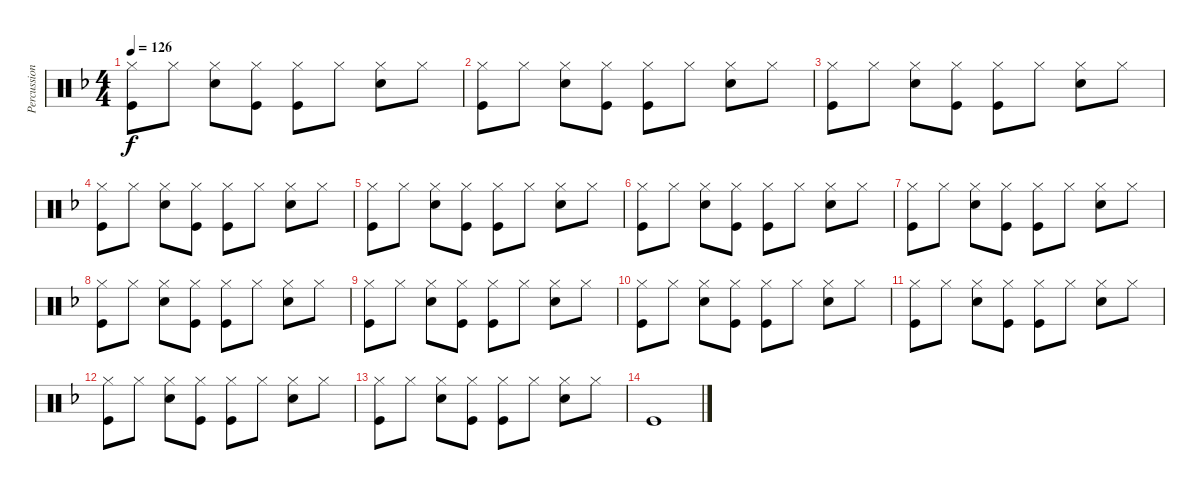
\track ("Percussion" "Percussion") {instrument percussion}
\staff {score}
\articulation defaults
\ts (4 4)
\tempo 126
\clef neutral
\ks dminor
("Kick (hit)" "Hi-Hat (closed)").8{dy f} "Hi-Hat (closed)".8 ("Hi-Hat (closed)" "Snare (hit) 2").8 ("Hi-Hat (closed)" "Kick (hit)").8 ("Hi-Hat (closed)" "Kick (hit)").8 "Hi-Hat (closed)".8 ("Hi-Hat (closed)" "Snare (hit) 2").8 "Hi-Hat (closed)".8 |
("Kick (hit)" "Hi-Hat (closed)").8 "Hi-Hat (closed)".8 ("Hi-Hat (closed)" "Snare (hit) 2").8 ("Hi-Hat (closed)" "Kick (hit)").8 ("Hi-Hat (closed)" "Kick (hit)").8 "Hi-Hat (closed)".8 ("Hi-Hat (closed)" "Snare (hit) 2").8 "Hi-Hat (closed)".8 |
("Kick (hit)" "Hi-Hat (closed)").8 "Hi-Hat (closed)".8 ("Hi-Hat (closed)" "Snare (hit) 2").8 ("Hi-Hat (closed)" "Kick (hit)").8 ("Hi-Hat (closed)" "Kick (hit)").8 "Hi-Hat (closed)".8 ("Hi-Hat (closed)" "Snare (hit) 2").8 "Hi-Hat (closed)".8 |
("Kick (hit)" "Hi-Hat (closed)").8 "Hi-Hat (closed)".8 ("Hi-Hat (closed)" "Snare (hit) 2").8 ("Hi-Hat (closed)" "Kick (hit)").8 ("Hi-Hat (closed)" "Kick (hit)").8 "Hi-Hat (closed)".8 ("Hi-Hat (closed)" "Snare (hit) 2").8 "Hi-Hat (closed)".8 |
("Kick (hit)" "Hi-Hat (closed)").8 "Hi-Hat (closed)".8 ("Hi-Hat (closed)" "Snare (hit) 2").8 ("Hi-Hat (closed)" "Kick (hit)").8 ("Hi-Hat (closed)" "Kick (hit)").8 "Hi-Hat (closed)".8 ("Hi-Hat (closed)" "Snare (hit) 2").8 "Hi-Hat (closed)".8 |
("Kick (hit)" "Hi-Hat (closed)").8 "Hi-Hat (closed)".8 ("Hi-Hat (closed)" "Snare (hit) 2").8 ("Hi-Hat (closed)" "Kick (hit)").8 ("Hi-Hat (closed)" "Kick (hit)").8 "Hi-Hat (closed)".8 ("Hi-Hat (closed)" "Snare (hit) 2").8 "Hi-Hat (closed)".8 |
("Kick (hit)" "Hi-Hat (closed)").8 "Hi-Hat (closed)".8 ("Hi-Hat (closed)" "Snare (hit) 2").8 ("Hi-Hat (closed)" "Kick (hit)").8 ("Hi-Hat (closed)" "Kick (hit)").8 "Hi-Hat (closed)".8 ("Hi-Hat (closed)" "Snare (hit) 2").8 "Hi-Hat (closed)".8 |
("Kick (hit)" "Hi-Hat (closed)").8 "Hi-Hat (closed)".8 ("Hi-Hat (closed)" "Snare (hit) 2").8 ("Hi-Hat (closed)" "Kick (hit)").8 ("Hi-Hat (closed)" "Kick (hit)").8 "Hi-Hat (closed)".8 ("Hi-Hat (closed)" "Snare (hit) 2").8 "Hi-Hat (closed)".8 |
("Kick (hit)" "Hi-Hat (closed)").8 "Hi-Hat (closed)".8 ("Hi-Hat (closed)" "Snare (hit) 2").8 ("Hi-Hat (closed)" "Kick (hit)").8 ("Hi-Hat (closed)" "Kick (hit)").8 "Hi-Hat (closed)".8 ("Hi-Hat (closed)" "Snare (hit) 2").8 "Hi-Hat (closed)".8 |
("Kick (hit)" "Hi-Hat (closed)").8 "Hi-Hat (closed)".8 ("Hi-Hat (closed)" "Snare (hit) 2").8 ("Hi-Hat (closed)" "Kick (hit)").8 ("Hi-Hat (closed)" "Kick (hit)").8 "Hi-Hat (closed)".8 ("Hi-Hat (closed)" "Snare (hit) 2").8 "Hi-Hat (closed)".8 |
("Kick (hit)" "Hi-Hat (closed)").8 "Hi-Hat (closed)".8 ("Hi-Hat (closed)" "Snare (hit) 2").8 ("Hi-Hat (closed)" "Kick (hit)").8 ("Hi-Hat (closed)" "Kick (hit)").8 "Hi-Hat (closed)".8 ("Hi-Hat (closed)" "Snare (hit) 2").8 "Hi-Hat (closed)".8 |
("Kick (hit)" "Hi-Hat (closed)").8 "Hi-Hat (closed)".8 ("Hi-Hat (closed)" "Snare (hit) 2").8 ("Hi-Hat (closed)" "Kick (hit)").8 ("Hi-Hat (closed)" "Kick (hit)").8 "Hi-Hat (closed)".8 ("Hi-Hat (closed)" "Snare (hit) 2").8 "Hi-Hat (closed)".8 |
("Kick (hit)" "Hi-Hat (closed)").8 "Hi-Hat (closed)".8 ("Hi-Hat (closed)" "Snare (hit) 2").8 ("Hi-Hat (closed)" "Kick (hit)").8 ("Hi-Hat (closed)" "Kick (hit)").8 "Hi-Hat (closed)".8 ("Hi-Hat (closed)" "Snare (hit) 2").8 "Hi-Hat (closed)".8 |
"Kick (hit)".1
